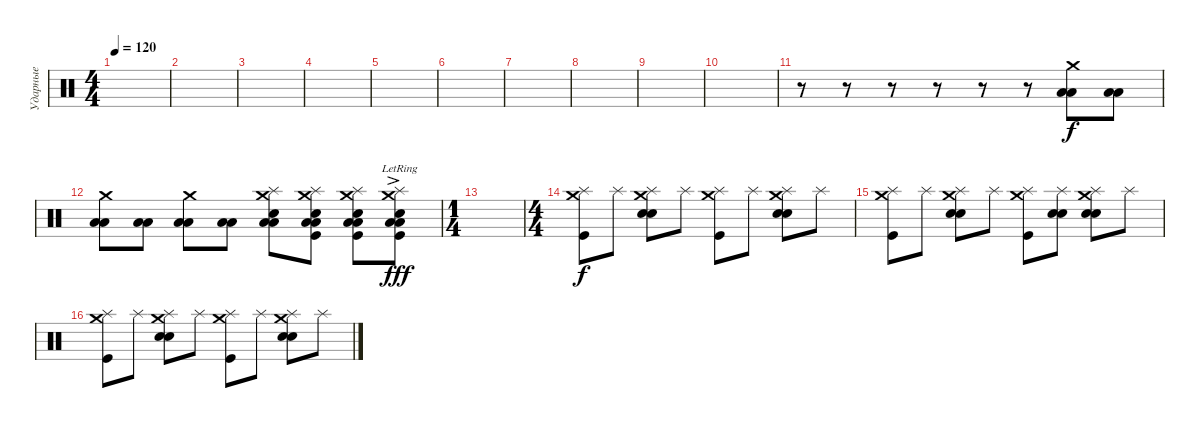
\track ("Ударные" "Ударные") {instrument percussion}
\staff {score}
\articulation defaults
\ts (4 4)
\tempo 120
\clef neutral
\ks c
|
|
|
|
|
|
|
|
|
|
r.8 r.8 r.8 r.8 r.8 r.8 ("Crash medium (hit)" "Low Floor Tom (hit)" "Low Floor Tom (hit)").8 ("Low Floor Tom (hit)" "Low Floor Tom (hit)").8 |
("Crash medium (hit)" "Low Floor Tom (hit)" "Low Floor Tom (hit)").8 ("Low Floor Tom (hit)" "Low Floor Tom (hit)").8 ("Crash medium (hit)" "Low Floor Tom (hit)" "Low Floor Tom (hit)").8 ("Low Floor Tom (hit)" "Low Floor Tom (hit)").8 ("Crash medium (hit)" "Splash (hit)" "Low Floor Tom (hit)" "Low Floor Tom (hit)" "Electric Snare (hit)").8 ("Crash medium (hit)" "Splash (hit)" "Low Floor Tom (hit)" "Low Floor Tom (hit)" "Electric Snare (hit)" "Kick (hit)").8 ("Crash medium (hit)" "Splash (hit)" "Low Floor Tom (hit)" "Low Floor Tom (hit)" "Electric Snare (hit)" "Kick (hit)").8 ("Crash medium (hit)"{lr} "Splash (hit)"{ac lr} "Low Floor Tom (hit)"{lr} "Low Floor Tom (hit)"{lr} "Electric Snare (hit)"{lr} "Kick (hit)"{lr}).8{dy fff} |
\ts (1 4)
|
\ts (4 4)
("Crash medium (hit)" "Splash (hit)" "Kick (hit)").8{dy f} "Splash (hit)".8 ("Crash medium (hit)" "Splash (hit)" "Electric Snare (hit)" "Electric Snare (hit)").8 "Splash (hit)".8 ("Crash medium (hit)" "Splash (hit)" "Kick (hit)").8 "Splash (hit)".8 ("Crash medium (hit)" "Splash (hit)" "Electric Snare (hit)" "Electric Snare (hit)").8 "Splash (hit)".8 |
("Crash medium (hit)" "Splash (hit)" "Kick (hit)").8 "Splash (hit)".8 ("Crash medium (hit)" "Splash (hit)" "Electric Snare (hit)" "Electric Snare (hit)").8 "Splash (hit)".8 ("Crash medium (hit)" "Splash (hit)" "Kick (hit)").8 ("Splash (hit)" "Snare (hit) 2" "Snare (hit) 2").8 ("Crash medium (hit)" "Splash (hit)" "Electric Snare (hit)" "Electric Snare (hit)").8 "Splash (hit)".8 |
("Crash medium (hit)" "Splash (hit)" "Kick (hit)").8 "Splash (hit)".8 ("Crash medium (hit)" "Splash (hit)" "Electric Snare (hit)" "Electric Snare (hit)").8 "Splash (hit)".8 ("Crash medium (hit)" "Splash (hit)" "Kick (hit)").8 "Splash (hit)".8 ("Crash medium (hit)" "Splash (hit)" "Electric Snare (hit)" "Electric Snare (hit)").8 "Splash (hit)".8
